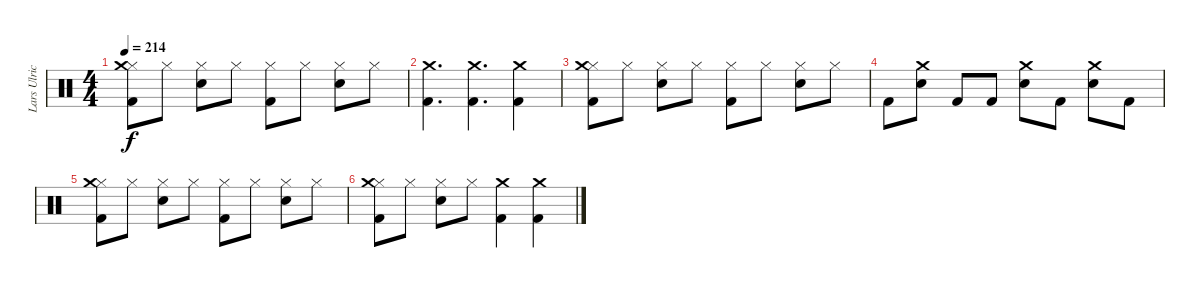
\track ("Lars Ulrich" "Lars Ulric") {instrument percussion}
\staff {score}
\articulation defaults
\ts (4 4)
\tempo 214
\clef neutral
\ks c
("Hi-Hat (closed)" "Kick (hit) 2" "Crash medium (hit)").8{dy f} "Hi-Hat (closed)".8 ("Hi-Hat (closed)" "Snare (hit) 2").8 "Hi-Hat (closed)".8 ("Hi-Hat (closed)" "Kick (hit) 2").8 "Hi-Hat (closed)".8 ("Hi-Hat (closed)" "Snare (hit) 2").8 "Hi-Hat (closed)".8 |
("Kick (hit) 2" "Crash medium (hit)").4{d} ("Crash medium (hit)" "Kick (hit) 2").4{d} ("Kick (hit) 2" "Crash medium (hit)").4 |
("Hi-Hat (closed)" "Kick (hit) 2" "Crash medium (hit)").8 "Hi-Hat (closed)".8 ("Hi-Hat (closed)" "Snare (hit) 2").8 "Hi-Hat (closed)".8 ("Hi-Hat (closed)" "Kick (hit) 2").8 "Hi-Hat (closed)".8 ("Hi-Hat (closed)" "Snare (hit) 2").8 "Hi-Hat (closed)".8 |
"Kick (hit) 2".8 ("Snare (hit) 2" "Crash medium (hit)").8 "Kick (hit) 2".8 "Kick (hit) 2".8 ("Snare (hit) 2" "Crash medium (hit)").8 "Kick (hit) 2".8 ("Snare (hit) 2" "Crash medium (hit)").8 "Kick (hit) 2".8 |
("Hi-Hat (closed)" "Kick (hit) 2" "Crash medium (hit)").8 "Hi-Hat (closed)".8 ("Hi-Hat (closed)" "Snare (hit) 2").8 "Hi-Hat (closed)".8 ("Hi-Hat (closed)" "Kick (hit) 2").8 "Hi-Hat (closed)".8 ("Hi-Hat (closed)" "Snare (hit) 2").8 "Hi-Hat (closed)".8 |
("Hi-Hat (closed)" "Kick (hit) 2" "Crash medium (hit)").8 "Hi-Hat (closed)".8 ("Hi-Hat (closed)" "Snare (hit) 2").8 "Hi-Hat (closed)".8 ("Kick (hit) 2" "Crash medium (hit)").4 ("Kick (hit) 2" "Crash medium (hit)").4
